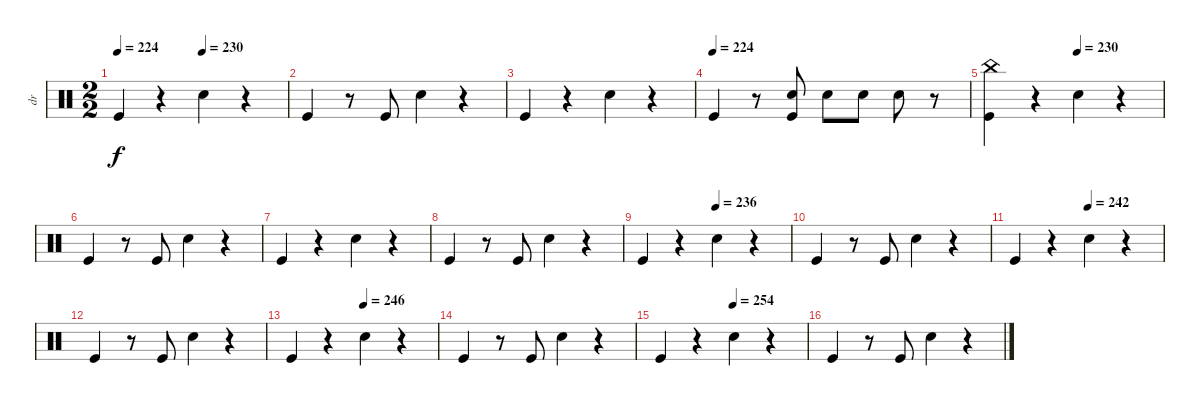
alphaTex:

\track ("dr" "dr") {instrument percussion}
\staff {score}
\articulation defaults
\ts (2 2)
\tempo 224
\tempo (230 0.5)
\clef neutral
\ks c "Kick (hit)".4{dy f}
r.4 "Snare (hit) 2".4 r.4 |
"Kick (hit)".4 r.8 "Kick (hit)".8 "Snare (hit) 2".4 r.4 |
"Kick (hit)".4 r.4 "Snare (hit) 2".4 r.4 |
\tempo (224)
"Kick (hit)".4 r.8 ("Kick (hit)" "Electric Snare (hit)").8 "Electric Snare (hit)".8 "Electric Snare (hit)".8 "Snare (hit) 2".8 r.8 |
\tempo (230 0.5)
("China (hit)" "Kick (hit)").4 r.4 "Snare (hit) 2".4 r.4 |
"Kick (hit)".4 r.8 "Kick (hit)".8 "Snare (hit) 2".4 r.4 |
"Kick (hit)".4 r.4 "Snare (hit) 2".4 r.4 |
"Kick (hit)".4 r.8 "Kick (hit)".8 "Snare (hit) 2".4 r.4 |
\tempo (236 0.5)
"Kick (hit)".4 r.4 "Snare (hit) 2".4 r.4 |
"Kick (hit)".4 r.8 "Kick (hit)".8 "Snare (hit) 2".4 r.4 |
\tempo (242 0.5)
"Kick (hit)".4 r.4 "Snare (hit) 2".4 r.4 |
"Kick (hit)".4 r.8 "Kick (hit)".8 "Snare (hit) 2".4 r.4 |
\tempo (246 0.5)
"Kick (hit)".4 r.4 "Snare (hit) 2".4 r.4 |
"Kick (hit)".4 r.8 "Kick (hit)".8 "Snare (hit) 2".4 r.4 |
\tempo (254 0.5)
"Kick (hit)".4 r.4 "Snare (hit) 2".4 r.4 |
"Kick (hit)".4 r.8 "Kick (hit)".8 "Snare (hit) 2".4 r.4
